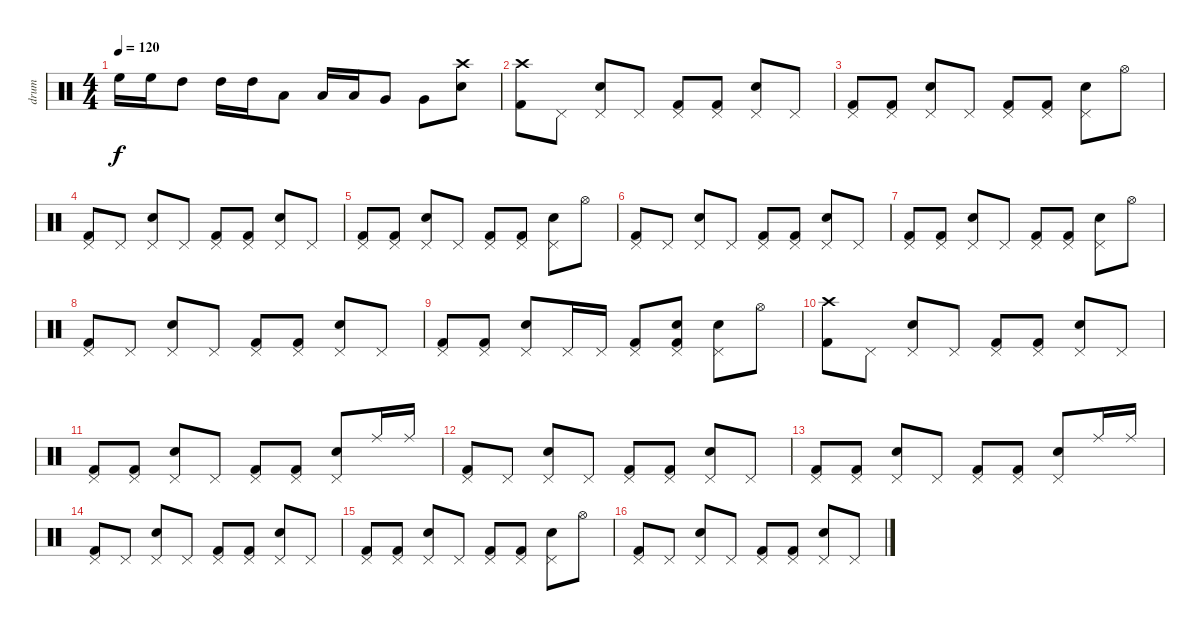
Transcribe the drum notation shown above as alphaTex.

\track ("drum" "drum") {instrument percussion}
\staff {score}
\articulation defaults
\ts (4 4)
\tempo 120
\clef neutral
\ks c "High Floor Tom (hit)".16{dy f} "High Floor Tom (hit)".16 "High Tom (hit)".8 "High Tom (hit)".16 "High Tom (hit)".16 "Low Tom (hit)".8 "Low Tom (hit)".16 "Low Tom (hit)".16 "Very Low Tom (hit)".8 "Very Low Tom (hit)".8
("Crash high (hit)" "Snare (hit) 2").8 |
("Crash high (hit)" "Kick (hit) 2").8 "Pedal Hi-Hat (hit)".8 ("Pedal Hi-Hat (hit)" "Snare (hit) 2").8 "Pedal Hi-Hat (hit)".8 ("Pedal Hi-Hat (hit)" "Kick (hit) 2").8 ("Pedal Hi-Hat (hit)" "Kick (hit) 2").8 ("Pedal Hi-Hat (hit)" "Snare (hit) 2").8 "Pedal Hi-Hat (hit)".8 |
("Pedal Hi-Hat (hit)" "Kick (hit) 2").8 ("Pedal Hi-Hat (hit)" "Kick (hit) 2").8 ("Pedal Hi-Hat (hit)" "Snare (hit) 2").8 "Pedal Hi-Hat (hit)".8 ("Pedal Hi-Hat (hit)" "Kick (hit) 2").8 ("Pedal Hi-Hat (hit)" "Kick (hit) 2").8 ("Pedal Hi-Hat (hit)" "Snare (hit) 2").8 "Hi-Hat (open)".8 |
("Pedal Hi-Hat (hit)" "Kick (hit) 2").8 "Pedal Hi-Hat (hit)".8 ("Pedal Hi-Hat (hit)" "Snare (hit) 2").8 "Pedal Hi-Hat (hit)".8 ("Pedal Hi-Hat (hit)" "Kick (hit) 2").8 ("Pedal Hi-Hat (hit)" "Kick (hit) 2").8 ("Pedal Hi-Hat (hit)" "Snare (hit) 2").8 "Pedal Hi-Hat (hit)".8 |
("Pedal Hi-Hat (hit)" "Kick (hit) 2").8 ("Pedal Hi-Hat (hit)" "Kick (hit) 2").8 ("Pedal Hi-Hat (hit)" "Snare (hit) 2").8 "Pedal Hi-Hat (hit)".8 ("Pedal Hi-Hat (hit)" "Kick (hit) 2").8 ("Pedal Hi-Hat (hit)" "Kick (hit) 2").8 ("Pedal Hi-Hat (hit)" "Snare (hit) 2").8 "Hi-Hat (open)".8 |
("Pedal Hi-Hat (hit)" "Kick (hit) 2").8 "Pedal Hi-Hat (hit)".8 ("Pedal Hi-Hat (hit)" "Snare (hit) 2").8 "Pedal Hi-Hat (hit)".8 ("Pedal Hi-Hat (hit)" "Kick (hit) 2").8 ("Pedal Hi-Hat (hit)" "Kick (hit) 2").8 ("Pedal Hi-Hat (hit)" "Snare (hit) 2").8 "Pedal Hi-Hat (hit)".8 |
("Pedal Hi-Hat (hit)" "Kick (hit) 2").8 ("Pedal Hi-Hat (hit)" "Kick (hit) 2").8 ("Pedal Hi-Hat (hit)" "Snare (hit) 2").8 "Pedal Hi-Hat (hit)".8 ("Pedal Hi-Hat (hit)" "Kick (hit) 2").8 ("Pedal Hi-Hat (hit)" "Kick (hit) 2").8 ("Pedal Hi-Hat (hit)" "Snare (hit) 2").8 "Hi-Hat (open)".8 |
("Pedal Hi-Hat (hit)" "Kick (hit) 2").8 "Pedal Hi-Hat (hit)".8 ("Pedal Hi-Hat (hit)" "Snare (hit) 2").8 "Pedal Hi-Hat (hit)".8 ("Pedal Hi-Hat (hit)" "Kick (hit) 2").8 ("Pedal Hi-Hat (hit)" "Kick (hit) 2").8 ("Pedal Hi-Hat (hit)" "Snare (hit) 2").8 "Pedal Hi-Hat (hit)".8 |
("Pedal Hi-Hat (hit)" "Kick (hit) 2").8 ("Pedal Hi-Hat (hit)" "Kick (hit) 2").8 ("Pedal Hi-Hat (hit)" "Snare (hit) 2").8 "Pedal Hi-Hat (hit)".16 "Pedal Hi-Hat (hit)".16 ("Pedal Hi-Hat (hit)" "Kick (hit) 2").8 ("Pedal Hi-Hat (hit)" "Snare (hit) 2" "Kick (hit) 2").8 ("Pedal Hi-Hat (hit)" "Snare (hit) 2").8 "Hi-Hat (open)".8 |
("Crash high (hit)" "Kick (hit) 2").8 "Pedal Hi-Hat (hit)".8 ("Pedal Hi-Hat (hit)" "Snare (hit) 2").8 "Pedal Hi-Hat (hit)".8 ("Pedal Hi-Hat (hit)" "Kick (hit) 2").8 ("Pedal Hi-Hat (hit)" "Kick (hit) 2").8 ("Pedal Hi-Hat (hit)" "Snare (hit) 2").8 "Pedal Hi-Hat (hit)".8 |
("Pedal Hi-Hat (hit)" "Kick (hit) 2").8 ("Pedal Hi-Hat (hit)" "Kick (hit) 2").8 ("Pedal Hi-Hat (hit)" "Snare (hit) 2").8 "Pedal Hi-Hat (hit)".8 ("Pedal Hi-Hat (hit)" "Kick (hit) 2").8 ("Pedal Hi-Hat (hit)" "Kick (hit) 2").8 ("Pedal Hi-Hat (hit)" "Snare (hit) 2").8 "Ride (middle)".16 "Ride (middle)".16 |
("Pedal Hi-Hat (hit)" "Kick (hit) 2").8 "Pedal Hi-Hat (hit)".8 ("Pedal Hi-Hat (hit)" "Snare (hit) 2").8 "Pedal Hi-Hat (hit)".8 ("Pedal Hi-Hat (hit)" "Kick (hit) 2").8 ("Pedal Hi-Hat (hit)" "Kick (hit) 2").8 ("Pedal Hi-Hat (hit)" "Snare (hit) 2").8 "Pedal Hi-Hat (hit)".8 |
("Pedal Hi-Hat (hit)" "Kick (hit) 2").8 ("Pedal Hi-Hat (hit)" "Kick (hit) 2").8 ("Pedal Hi-Hat (hit)" "Snare (hit) 2").8 "Pedal Hi-Hat (hit)".8 ("Pedal Hi-Hat (hit)" "Kick (hit) 2").8 ("Pedal Hi-Hat (hit)" "Kick (hit) 2").8 ("Pedal Hi-Hat (hit)" "Snare (hit) 2").8 "Ride (middle)".16 "Ride (middle)".16 |
("Pedal Hi-Hat (hit)" "Kick (hit) 2").8 "Pedal Hi-Hat (hit)".8 ("Pedal Hi-Hat (hit)" "Snare (hit) 2").8 "Pedal Hi-Hat (hit)".8 ("Pedal Hi-Hat (hit)" "Kick (hit) 2").8 ("Pedal Hi-Hat (hit)" "Kick (hit) 2").8 ("Pedal Hi-Hat (hit)" "Snare (hit) 2").8 "Pedal Hi-Hat (hit)".8 |
("Pedal Hi-Hat (hit)" "Kick (hit) 2").8 ("Pedal Hi-Hat (hit)" "Kick (hit) 2").8 ("Pedal Hi-Hat (hit)" "Snare (hit) 2").8 "Pedal Hi-Hat (hit)".8 ("Pedal Hi-Hat (hit)" "Kick (hit) 2").8 ("Pedal Hi-Hat (hit)" "Kick (hit) 2").8 ("Pedal Hi-Hat (hit)" "Snare (hit) 2").8 "Hi-Hat (open)".8 |
("Pedal Hi-Hat (hit)" "Kick (hit) 2").8 "Pedal Hi-Hat (hit)".8 ("Pedal Hi-Hat (hit)" "Snare (hit) 2").8 "Pedal Hi-Hat (hit)".8 ("Pedal Hi-Hat (hit)" "Kick (hit) 2").8 ("Pedal Hi-Hat (hit)" "Kick (hit) 2").8 ("Pedal Hi-Hat (hit)" "Snare (hit) 2").8 "Pedal Hi-Hat (hit)".8
